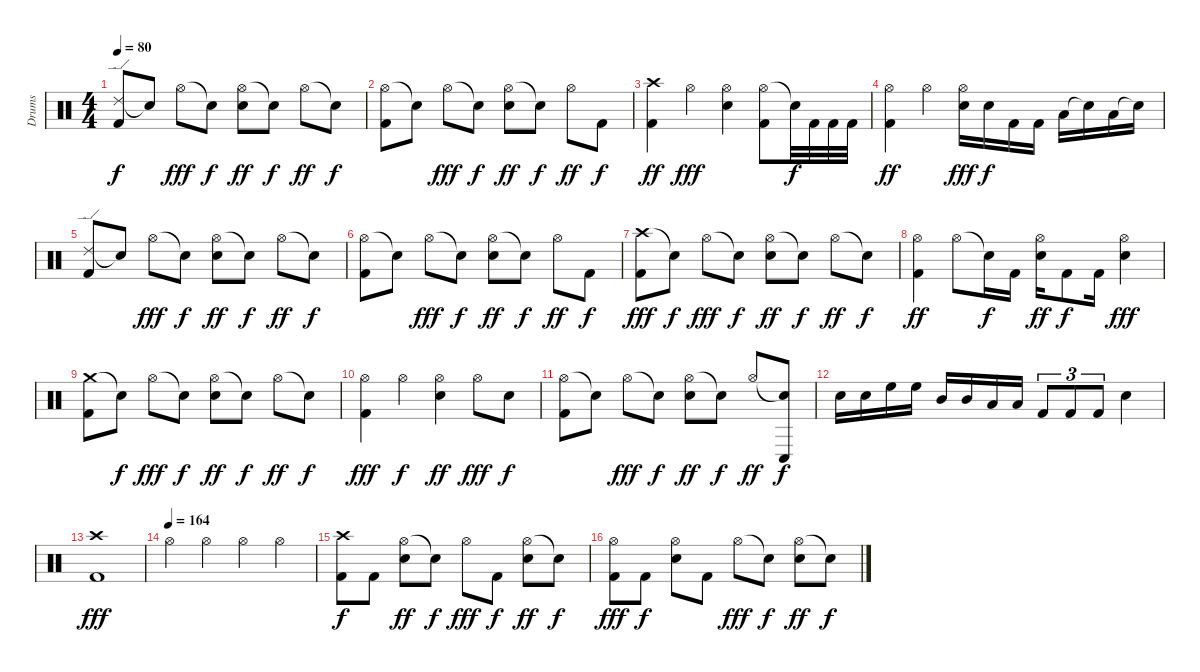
\track ("Drums" "Drums") {instrument percussion}
\staff {score}
\articulation defaults
\ts (4 4)
\tempo 80
\clef neutral
\ks c
("Ride (edge) 2" "Kick (hit) 2").8{dy f} "Snare (hit)"{t}.8 "Hi-Hat (open)".8{dy fff} "Snare (hit)"{t}.8{dy f} ("Hi-Hat (open)" "Electric Snare (hit)").8{dy ff} "Snare (hit)"{t}.8{dy f} "Hi-Hat (open)".8{dy ff} "Snare (hit)"{t}.8{dy f} |
("Hi-Hat (open)" "Kick (hit) 2").8 "Snare (hit)"{t}.8 "Hi-Hat (open)".8{dy fff} "Snare (hit)"{t}.8{dy f} ("Hi-Hat (open)" "Electric Snare (hit)").8{dy ff} "Snare (hit)"{t}.8{dy f} "Hi-Hat (open)".8{dy ff} "Kick (hit) 2".8{dy f} |
("Crash high (hit)" "Kick (hit) 2").4{dy ff} "Hi-Hat (open)".4{dy fff} ("Hi-Hat (open)" "Electric Snare (hit)").4 ("Hi-Hat (open)" "Kick (hit) 2").8 "Snare (hit)"{t}.32{dy f} "Kick (hit) 2".32 "Kick (hit) 2".32 "Kick (hit) 2".32 |
("Hi-Hat (open)" "Kick (hit) 2").4{dy ff} "Hi-Hat (open)".4 ("Hi-Hat (open)" "Electric Snare (hit)").16{dy fff} "Electric Snare (hit)".16{dy f} "Kick (hit) 2".16 "Kick (hit) 2".16 "Low Tom (hit)".16 "Snare (hit)"{t}.16 "Low Floor Tom (hit)".16 "Snare (hit)"{t}.16 |
("Ride (edge) 2" "Kick (hit) 2").8 "Snare (hit)"{t}.8 "Hi-Hat (open)".8{dy fff} "Snare (hit)"{t}.8{dy f} ("Hi-Hat (open)" "Electric Snare (hit)").8{dy ff} "Snare (hit)"{t}.8{dy f} "Hi-Hat (open)".8{dy ff} "Snare (hit)"{t}.8{dy f} |
("Hi-Hat (open)" "Kick (hit) 2").8 "Snare (hit)"{t}.8 "Hi-Hat (open)".8{dy fff} "Snare (hit)"{t}.8{dy f} ("Hi-Hat (open)" "Electric Snare (hit)").8{dy ff} "Snare (hit)"{t}.8{dy f} "Hi-Hat (open)".8{dy ff} "Kick (hit) 2".8{dy f} |
("Crash high (hit)" "Kick (hit) 2").8{dy fff} "Snare (hit)"{t}.8{dy f} "Hi-Hat (open)".8{dy fff} "Snare (hit)"{t}.8{dy f} ("Hi-Hat (open)" "Electric Snare (hit)").8{dy ff} "Snare (hit)"{t}.8{dy f} "Hi-Hat (open)".8{dy ff} "Snare (hit)"{t}.8{dy f} |
("Hi-Hat (open)" "Kick (hit) 2").4{dy ff} "Hi-Hat (open)".8 "Snare (hit)"{t}.16{dy f} "Kick (hit) 2".16 ("Hi-Hat (open)" "Electric Snare (hit)").16{dy ff} "Kick (hit) 2".8{dy f} "Kick (hit) 2".16 ("Hi-Hat (open)" "Electric Snare (hit)").4{dy fff} |
("Crash medium (hit)" "Kick (hit) 2").8 "Snare (hit)"{t}.8{dy f} "Hi-Hat (open)".8{dy fff} "Snare (hit)"{t}.8{dy f} ("Hi-Hat (open)" "Electric Snare (hit)").8{dy ff} "Snare (hit)"{t}.8{dy f} "Hi-Hat (open)".8{dy ff} "Snare (hit)"{t}.8{dy f} |
("Hi-Hat (open)" "Kick (hit) 2").4{dy fff} "Hi-Hat (open)".4{dy f} ("Hi-Hat (open)" "Electric Snare (hit)").4{dy ff} "Hi-Hat (open)".8{dy fff} "Electric Snare (hit)".8{dy f} |
("Hi-Hat (open)" "Kick (hit) 2").8 "Snare (hit)"{t}.8 "Hi-Hat (open)".8{dy fff} "Snare (hit)"{t}.8{dy f} ("Hi-Hat (open)" "Electric Snare (hit)").8{dy ff} "Snare (hit)"{t}.8{dy f} "Hi-Hat (open)".8{dy ff} ("Snare (hit)"{t} "Conga low (hit)").8{dy f} |
"Electric Snare (hit)".16 "Electric Snare (hit)".16 "High Floor Tom (hit)".16 "High Floor Tom (hit)".16 "Mid Tom (hit)".16 "Mid Tom (hit)".16 "Low Floor Tom (hit)".16 "Low Floor Tom (hit)".16 "Kick (hit) 2".8{tu (3 2)} "Kick (hit) 2".8{tu (3 2)} "Kick (hit) 2".8{tu (3 2)} "Snare (hit) 2".4 |
("Crash high (hit)" "Kick (hit) 2").1{dy fff} |
\tempo (164)
"Hi-Hat (open)".4 "Hi-Hat (open)".4 "Hi-Hat (open)".4 "Hi-Hat (open)".4 |
("Crash high (hit)" "Kick (hit) 2").8{dy f} "Kick (hit) 2".8 ("Hi-Hat (open)" "Electric Snare (hit)").8{dy ff} "Snare (hit)"{t}.8{dy f} "Hi-Hat (open)".8{dy fff} "Kick (hit) 2".8{dy f} ("Hi-Hat (open)" "Electric Snare (hit)").8{dy ff} "Snare (hit)"{t}.8{dy f} |
("Hi-Hat (open)" "Kick (hit) 2").8{dy fff} "Kick (hit) 2".8{dy f} ("Hi-Hat (open)" "Electric Snare (hit)").8 "Kick (hit) 2".8 "Hi-Hat (open)".8{dy fff} "Snare (hit)"{t}.8{dy f} ("Hi-Hat (open)" "Electric Snare (hit)").8{dy ff} "Snare (hit)"{t}.8{dy f}
